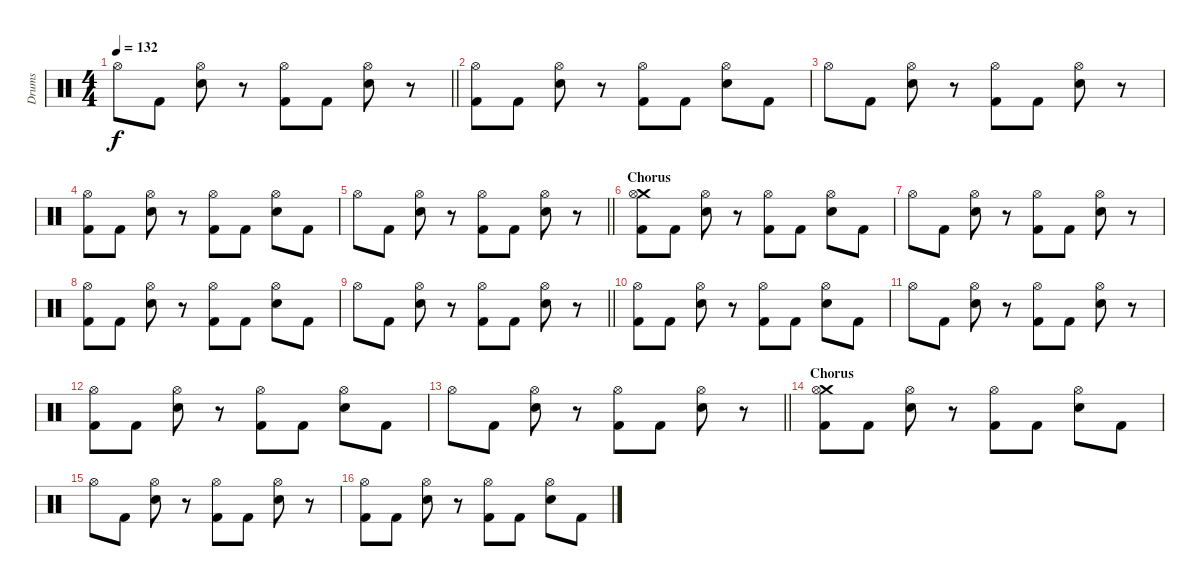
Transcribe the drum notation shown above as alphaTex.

\track ("Drums" "Drums") {instrument percussion}
\staff
\articulation defaults
\ts (4 4)
\tempo 132
\clef neutral
\barLineRight lightlight
\ks c "Hi-Hat (open)".8{dy f} "Kick (hit) 2".8
("Hi-Hat (open)" "Snare (hit) 2").8 r.8 ("Hi-Hat (open)" "Kick (hit) 2").8 "Kick (hit) 2".8 ("Hi-Hat (open)" "Snare (hit) 2").8 r.8 |
("Hi-Hat (open)" "Kick (hit) 2").8 "Kick (hit) 2".8 ("Hi-Hat (open)" "Snare (hit) 2").8 r.8 ("Hi-Hat (open)" "Kick (hit) 2").8 "Kick (hit) 2".8 ("Hi-Hat (open)" "Snare (hit) 2").8 "Kick (hit) 2".8 |
"Hi-Hat (open)".8 "Kick (hit) 2".8 ("Hi-Hat (open)" "Snare (hit) 2").8 r.8 ("Hi-Hat (open)" "Kick (hit) 2").8 "Kick (hit) 2".8 ("Hi-Hat (open)" "Snare (hit) 2").8 r.8 |
("Hi-Hat (open)" "Kick (hit) 2").8 "Kick (hit) 2".8 ("Hi-Hat (open)" "Snare (hit) 2").8 r.8 ("Hi-Hat (open)" "Kick (hit) 2").8 "Kick (hit) 2".8 ("Hi-Hat (open)" "Snare (hit) 2").8 "Kick (hit) 2".8 |
\barLineRight lightlight "Hi-Hat (open)".8 "Kick (hit) 2".8
("Hi-Hat (open)" "Snare (hit) 2").8 r.8 ("Hi-Hat (open)" "Kick (hit) 2").8 "Kick (hit) 2".8 ("Hi-Hat (open)" "Snare (hit) 2").8 r.8 |
\section ("" "Chorus")
("Crash medium (hit)" "Hi-Hat (open)" "Kick (hit) 2").8 "Kick (hit) 2".8 ("Hi-Hat (open)" "Snare (hit) 2").8 r.8 ("Hi-Hat (open)" "Kick (hit) 2").8 "Kick (hit) 2".8 ("Hi-Hat (open)" "Snare (hit) 2").8 "Kick (hit) 2".8 |
"Hi-Hat (open)".8 "Kick (hit) 2".8 ("Hi-Hat (open)" "Snare (hit) 2").8 r.8 ("Hi-Hat (open)" "Kick (hit) 2").8 "Kick (hit) 2".8 ("Hi-Hat (open)" "Snare (hit) 2").8 r.8 |
("Hi-Hat (open)" "Kick (hit) 2").8 "Kick (hit) 2".8 ("Hi-Hat (open)" "Snare (hit) 2").8 r.8 ("Hi-Hat (open)" "Kick (hit) 2").8 "Kick (hit) 2".8 ("Hi-Hat (open)" "Snare (hit) 2").8 "Kick (hit) 2".8 |
\barLineRight lightlight "Hi-Hat (open)".8 "Kick (hit) 2".8
("Hi-Hat (open)" "Snare (hit) 2").8 r.8 ("Hi-Hat (open)" "Kick (hit) 2").8 "Kick (hit) 2".8 ("Hi-Hat (open)" "Snare (hit) 2").8 r.8 |
("Hi-Hat (open)" "Kick (hit) 2").8 "Kick (hit) 2".8 ("Hi-Hat (open)" "Snare (hit) 2").8 r.8 ("Hi-Hat (open)" "Kick (hit) 2").8 "Kick (hit) 2".8 ("Hi-Hat (open)" "Snare (hit) 2").8 "Kick (hit) 2".8 |
"Hi-Hat (open)".8 "Kick (hit) 2".8 ("Hi-Hat (open)" "Snare (hit) 2").8 r.8 ("Hi-Hat (open)" "Kick (hit) 2").8 "Kick (hit) 2".8 ("Hi-Hat (open)" "Snare (hit) 2").8 r.8 |
("Hi-Hat (open)" "Kick (hit) 2").8 "Kick (hit) 2".8 ("Hi-Hat (open)" "Snare (hit) 2").8 r.8 ("Hi-Hat (open)" "Kick (hit) 2").8 "Kick (hit) 2".8 ("Hi-Hat (open)" "Snare (hit) 2").8 "Kick (hit) 2".8 |
\barLineRight lightlight "Hi-Hat (open)".8 "Kick (hit) 2".8
("Hi-Hat (open)" "Snare (hit) 2").8 r.8 ("Hi-Hat (open)" "Kick (hit) 2").8 "Kick (hit) 2".8 ("Hi-Hat (open)" "Snare (hit) 2").8 r.8 |
\section ("" "Chorus")
("Crash medium (hit)" "Hi-Hat (open)" "Kick (hit) 2").8 "Kick (hit) 2".8 ("Hi-Hat (open)" "Snare (hit) 2").8 r.8 ("Hi-Hat (open)" "Kick (hit) 2").8 "Kick (hit) 2".8 ("Hi-Hat (open)" "Snare (hit) 2").8 "Kick (hit) 2".8 |
"Hi-Hat (open)".8 "Kick (hit) 2".8 ("Hi-Hat (open)" "Snare (hit) 2").8 r.8 ("Hi-Hat (open)" "Kick (hit) 2").8 "Kick (hit) 2".8 ("Hi-Hat (open)" "Snare (hit) 2").8 r.8 |
("Hi-Hat (open)" "Kick (hit) 2").8 "Kick (hit) 2".8 ("Hi-Hat (open)" "Snare (hit) 2").8 r.8 ("Hi-Hat (open)" "Kick (hit) 2").8 "Kick (hit) 2".8 ("Hi-Hat (open)" "Snare (hit) 2").8 "Kick (hit) 2".8
